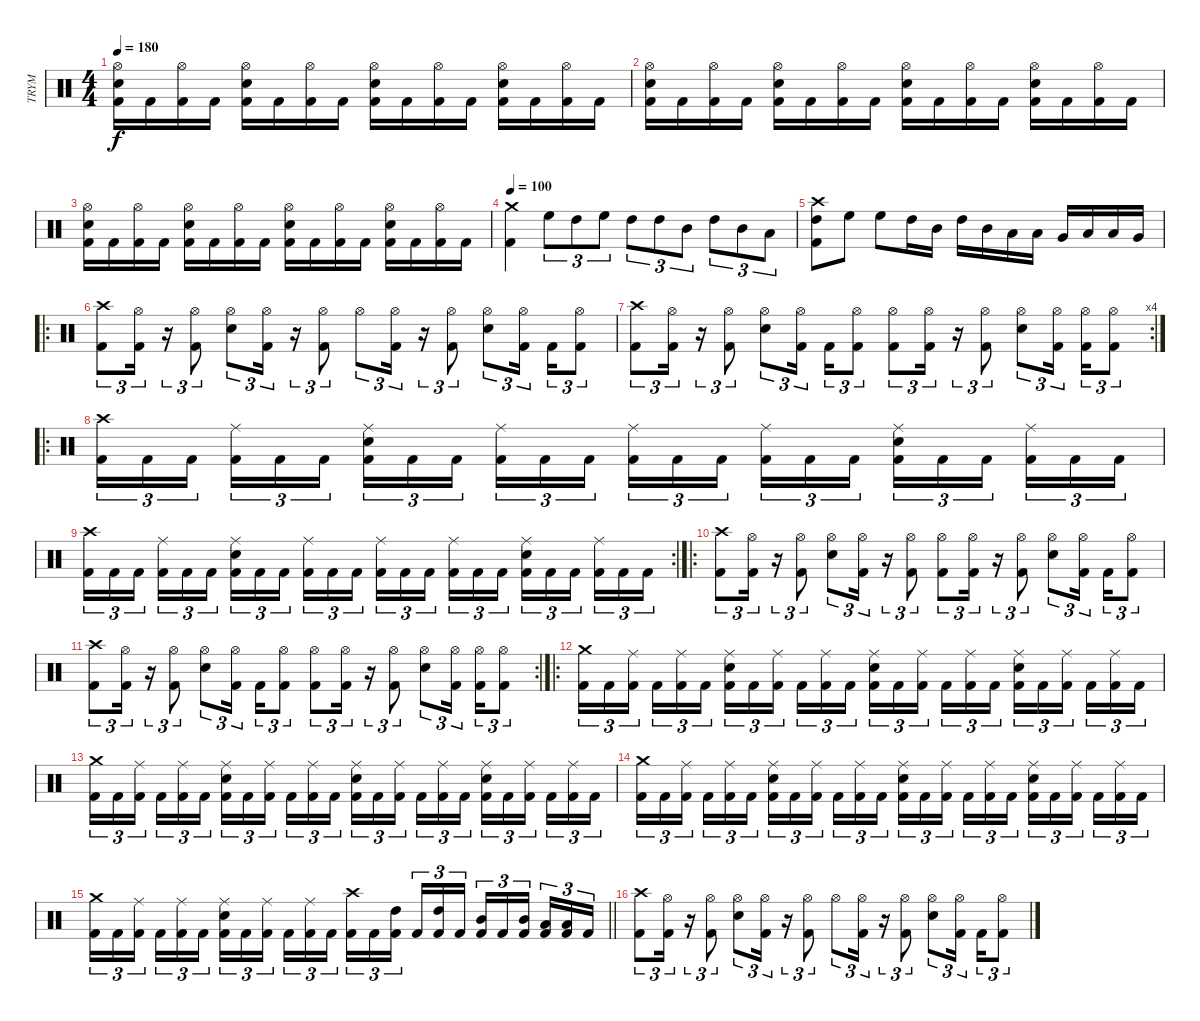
\track ("TRYM" "TRYM") {instrument percussion}
\staff {score}
\articulation defaults
\ts (4 4)
\tempo 180
\clef neutral
\ks c
("Kick (hit) 2" "Hi-Hat (open)" "Electric Snare (hit)").16{dy f} "Kick (hit) 2".16 ("Kick (hit) 2" "Hi-Hat (open)").16 "Kick (hit) 2".16 ("Kick (hit) 2" "Hi-Hat (open)" "Electric Snare (hit)").16 "Kick (hit) 2".16 ("Kick (hit) 2" "Hi-Hat (open)").16 "Kick (hit) 2".16 ("Kick (hit) 2" "Hi-Hat (open)" "Electric Snare (hit)").16 "Kick (hit) 2".16 ("Kick (hit) 2" "Hi-Hat (open)").16 "Kick (hit) 2".16 ("Kick (hit) 2" "Hi-Hat (open)" "Electric Snare (hit)").16 "Kick (hit) 2".16 ("Kick (hit) 2" "Hi-Hat (open)").16 "Kick (hit) 2".16 |
("Kick (hit) 2" "Hi-Hat (open)" "Electric Snare (hit)").16 "Kick (hit) 2".16 ("Kick (hit) 2" "Hi-Hat (open)").16 "Kick (hit) 2".16 ("Kick (hit) 2" "Hi-Hat (open)" "Electric Snare (hit)").16 "Kick (hit) 2".16 ("Kick (hit) 2" "Hi-Hat (open)").16 "Kick (hit) 2".16 ("Kick (hit) 2" "Hi-Hat (open)" "Electric Snare (hit)").16 "Kick (hit) 2".16 ("Kick (hit) 2" "Hi-Hat (open)").16 "Kick (hit) 2".16 ("Kick (hit) 2" "Hi-Hat (open)" "Electric Snare (hit)").16 "Kick (hit) 2".16 ("Kick (hit) 2" "Hi-Hat (open)").16 "Kick (hit) 2".16 |
("Kick (hit) 2" "Hi-Hat (open)" "Electric Snare (hit)").16 "Kick (hit) 2".16 ("Kick (hit) 2" "Hi-Hat (open)").16 "Kick (hit) 2".16 ("Kick (hit) 2" "Hi-Hat (open)" "Electric Snare (hit)").16 "Kick (hit) 2".16 ("Kick (hit) 2" "Hi-Hat (open)").16 "Kick (hit) 2".16 ("Kick (hit) 2" "Hi-Hat (open)" "Electric Snare (hit)").16 "Kick (hit) 2".16 ("Kick (hit) 2" "Hi-Hat (open)").16 "Kick (hit) 2".16 ("Kick (hit) 2" "Hi-Hat (open)" "Electric Snare (hit)").16 "Kick (hit) 2".16 ("Kick (hit) 2" "Hi-Hat (open)").16 "Kick (hit) 2".16 |
\tempo 100
("Kick (hit) 2" "Crash medium (hit)").4 "High Floor Tom (hit)".8{tu (3 2)} "High Tom (hit)".8{tu (3 2)} "High Floor Tom (hit)".8{tu (3 2)} "High Tom (hit)".8{tu (3 2)} "High Tom (hit)".8{tu (3 2)} "Mid Tom (hit)".8{tu (3 2)} "High Tom (hit)".8{tu (3 2)} "Mid Tom (hit)".8{tu (3 2)} "Low Tom (hit)".8{tu (3 2)} |
("Kick (hit) 2" "High Tom (hit)" "Crash high (hit)").8 "High Floor Tom (hit)".8 "High Floor Tom (hit)".8 "High Tom (hit)".16 "Mid Tom (hit)".16 "High Tom (hit)".16 "Mid Tom (hit)".16 "Low Tom (hit)".16 "Low Tom (hit)".16 "Very Low Tom (hit)".16 "Low Tom (hit)".16 "Low Tom (hit)".16 "Very Low Tom (hit)".16 |
\ro
("Kick (hit) 2" "Crash high (hit)").8{tu (3 2)} ("Kick (hit) 2" "Hi-Hat (open)").16{tu (3 2)} r.16{tu (3 2)} ("Kick (hit) 2" "Hi-Hat (open)").8{tu (3 2)} ("Hi-Hat (open)" "Electric Snare (hit)").8{tu (3 2)} ("Kick (hit) 2" "Hi-Hat (open)").16{tu (3 2)} r.16{tu (3 2)} ("Kick (hit) 2" "Hi-Hat (open)").8{tu (3 2)} "Hi-Hat (open)".8{tu (3 2)} ("Kick (hit) 2" "Hi-Hat (open)").16{tu (3 2)} r.16{tu (3 2)} ("Kick (hit) 2" "Hi-Hat (open)").8{tu (3 2)} ("Hi-Hat (open)" "Electric Snare (hit)").8{tu (3 2)} ("Kick (hit) 2" "Hi-Hat (open)").16{tu (3 2) beam splitsecondary} "Kick (hit) 2".16{tu (3 2)} ("Kick (hit) 2" "Hi-Hat (open)").8{tu (3 2)} |
\rc 4
("Kick (hit) 2" "Crash high (hit)").8{tu (3 2)} ("Kick (hit) 2" "Hi-Hat (open)").16{tu (3 2)} r.16{tu (3 2)} ("Kick (hit) 2" "Hi-Hat (open)").8{tu (3 2)} ("Hi-Hat (open)" "Electric Snare (hit)").8{tu (3 2)} ("Kick (hit) 2" "Hi-Hat (open)").16{tu (3 2) beam splitsecondary} "Kick (hit) 2".16{tu (3 2)} ("Kick (hit) 2" "Hi-Hat (open)").8{tu (3 2)} ("Kick (hit) 2" "Hi-Hat (open)").8{tu (3 2)} ("Kick (hit) 2" "Hi-Hat (open)").16{tu (3 2)} r.16{tu (3 2)} ("Kick (hit) 2" "Hi-Hat (open)").8{tu (3 2)} ("Hi-Hat (open)" "Electric Snare (hit)").8{tu (3 2)} ("Kick (hit) 2" "Hi-Hat (open)").16{tu (3 2) beam splitsecondary} ("Kick (hit) 2" "Hi-Hat (open)").16{tu (3 2)} ("Kick (hit) 2" "Hi-Hat (open)").8{tu (3 2)} |
\ro
("Kick (hit) 2" "Crash high (hit)").16{tu (3 2)} "Kick (hit) 2".16{tu (3 2)} "Kick (hit) 2".16{tu (3 2) beam splitsecondary} ("Kick (hit) 2" "Ride (middle)").16{tu (3 2)} "Kick (hit) 2".16{tu (3 2)} "Kick (hit) 2".16{tu (3 2)} ("Kick (hit) 2" "Ride (middle)" "Electric Snare (hit)").16{tu (3 2)} "Kick (hit) 2".16{tu (3 2)} "Kick (hit) 2".16{tu (3 2) beam splitsecondary} ("Kick (hit) 2" "Ride (middle)").16{tu (3 2)} "Kick (hit) 2".16{tu (3 2)} "Kick (hit) 2".16{tu (3 2)} ("Kick (hit) 2" "Ride (middle)").16{tu (3 2)} "Kick (hit) 2".16{tu (3 2)} "Kick (hit) 2".16{tu (3 2) beam splitsecondary} ("Kick (hit) 2" "Ride (middle)").16{tu (3 2)} "Kick (hit) 2".16{tu (3 2)} "Kick (hit) 2".16{tu (3 2)} ("Kick (hit) 2" "Ride (middle)" "Electric Snare (hit)").16{tu (3 2)} "Kick (hit) 2".16{tu (3 2)} "Kick (hit) 2".16{tu (3 2) beam splitsecondary} ("Kick (hit) 2" "Ride (middle)").16{tu (3 2)} "Kick (hit) 2".16{tu (3 2)} "Kick (hit) 2".16{tu (3 2)} |
\rc 2
("Kick (hit) 2" "Crash high (hit)").16{tu (3 2)} "Kick (hit) 2".16{tu (3 2)} "Kick (hit) 2".16{tu (3 2) beam splitsecondary} ("Kick (hit) 2" "Ride (middle)").16{tu (3 2)} "Kick (hit) 2".16{tu (3 2)} "Kick (hit) 2".16{tu (3 2)} ("Kick (hit) 2" "Ride (middle)" "Electric Snare (hit)").16{tu (3 2)} "Kick (hit) 2".16{tu (3 2)} "Kick (hit) 2".16{tu (3 2) beam splitsecondary} ("Kick (hit) 2" "Ride (middle)").16{tu (3 2)} "Kick (hit) 2".16{tu (3 2)} "Kick (hit) 2".16{tu (3 2)} ("Kick (hit) 2" "Ride (middle)").16{tu (3 2)} "Kick (hit) 2".16{tu (3 2)} "Kick (hit) 2".16{tu (3 2) beam splitsecondary} ("Kick (hit) 2" "Ride (middle)").16{tu (3 2)} "Kick (hit) 2".16{tu (3 2)} "Kick (hit) 2".16{tu (3 2)} ("Kick (hit) 2" "Ride (middle)" "Electric Snare (hit)").16{tu (3 2)} "Kick (hit) 2".16{tu (3 2)} "Kick (hit) 2".16{tu (3 2) beam splitsecondary} ("Kick (hit) 2" "Ride (middle)").16{tu (3 2)} "Kick (hit) 2".16{tu (3 2)} "Kick (hit) 2".16{tu (3 2)} |
\ro
("Kick (hit) 2" "Crash high (hit)").8{tu (3 2)} ("Kick (hit) 2" "Hi-Hat (open)").16{tu (3 2)} r.16{tu (3 2)} ("Kick (hit) 2" "Hi-Hat (open)").8{tu (3 2)} ("Hi-Hat (open)" "Electric Snare (hit)").8{tu (3 2)} ("Kick (hit) 2" "Hi-Hat (open)").16{tu (3 2)} r.16{tu (3 2)} ("Kick (hit) 2" "Hi-Hat (open)").8{tu (3 2)} ("Kick (hit) 2" "Hi-Hat (open)").8{tu (3 2)} ("Kick (hit) 2" "Hi-Hat (open)").16{tu (3 2)} r.16{tu (3 2)} ("Kick (hit) 2" "Hi-Hat (open)").8{tu (3 2)} ("Hi-Hat (open)" "Electric Snare (hit)").8{tu (3 2)} ("Kick (hit) 2" "Hi-Hat (open)").16{tu (3 2) beam splitsecondary} "Kick (hit) 2".16{tu (3 2)} ("Kick (hit) 2" "Hi-Hat (open)").8{tu (3 2)} |
\rc 2
("Kick (hit) 2" "Crash high (hit)").8{tu (3 2)} ("Kick (hit) 2" "Hi-Hat (open)").16{tu (3 2)} r.16{tu (3 2)} ("Kick (hit) 2" "Hi-Hat (open)").8{tu (3 2)} ("Hi-Hat (open)" "Electric Snare (hit)").8{tu (3 2)} ("Kick (hit) 2" "Hi-Hat (open)").16{tu (3 2) beam splitsecondary} "Kick (hit) 2".16{tu (3 2)} ("Kick (hit) 2" "Hi-Hat (open)").8{tu (3 2)} ("Kick (hit) 2" "Hi-Hat (open)").8{tu (3 2)} ("Kick (hit) 2" "Hi-Hat (open)").16{tu (3 2)} r.16{tu (3 2)} ("Kick (hit) 2" "Hi-Hat (open)").8{tu (3 2)} ("Hi-Hat (open)" "Electric Snare (hit)").8{tu (3 2)} ("Kick (hit) 2" "Hi-Hat (open)").16{tu (3 2) beam splitsecondary} ("Kick (hit) 2" "Hi-Hat (open)").16{tu (3 2)} ("Kick (hit) 2" "Hi-Hat (open)").8{tu (3 2)} |
\ro
("Kick (hit) 2" "Crash medium (hit)").16{tu (3 2)} "Kick (hit) 2".16{tu (3 2)} ("Kick (hit) 2" "Ride (middle)").16{tu (3 2) beam splitsecondary} "Kick (hit) 2".16{tu (3 2)} ("Kick (hit) 2" "Ride (middle)").16{tu (3 2)} "Kick (hit) 2".16{tu (3 2)} ("Kick (hit) 2" "Ride (middle)" "Electric Snare (hit)").16{tu (3 2)} "Kick (hit) 2".16{tu (3 2)} ("Kick (hit) 2" "Ride (middle)").16{tu (3 2) beam splitsecondary} "Kick (hit) 2".16{tu (3 2)} ("Kick (hit) 2" "Ride (middle)").16{tu (3 2)} "Kick (hit) 2".16{tu (3 2)} ("Kick (hit) 2" "Ride (middle)" "Electric Snare (hit)").16{tu (3 2)} "Kick (hit) 2".16{tu (3 2)} ("Kick (hit) 2" "Ride (middle)").16{tu (3 2) beam splitsecondary} "Kick (hit) 2".16{tu (3 2)} ("Kick (hit) 2" "Ride (middle)").16{tu (3 2)} "Kick (hit) 2".16{tu (3 2)} ("Kick (hit) 2" "Ride (middle)" "Electric Snare (hit)").16{tu (3 2)} "Kick (hit) 2".16{tu (3 2)} ("Kick (hit) 2" "Ride (middle)").16{tu (3 2) beam splitsecondary} "Kick (hit) 2".16{tu (3 2)} ("Kick (hit) 2" "Ride (middle)").16{tu (3 2)} "Kick (hit) 2".16{tu (3 2)} |
("Kick (hit) 2" "Crash medium (hit)").16{tu (3 2)} "Kick (hit) 2".16{tu (3 2)} ("Kick (hit) 2" "Ride (middle)").16{tu (3 2) beam splitsecondary} "Kick (hit) 2".16{tu (3 2)} ("Kick (hit) 2" "Ride (middle)").16{tu (3 2)} "Kick (hit) 2".16{tu (3 2)} ("Kick (hit) 2" "Ride (middle)" "Electric Snare (hit)").16{tu (3 2)} "Kick (hit) 2".16{tu (3 2)} ("Kick (hit) 2" "Ride (middle)").16{tu (3 2) beam splitsecondary} "Kick (hit) 2".16{tu (3 2)} ("Kick (hit) 2" "Ride (middle)").16{tu (3 2)} "Kick (hit) 2".16{tu (3 2)} ("Kick (hit) 2" "Ride (middle)" "Electric Snare (hit)").16{tu (3 2)} "Kick (hit) 2".16{tu (3 2)} ("Kick (hit) 2" "Ride (middle)").16{tu (3 2) beam splitsecondary} "Kick (hit) 2".16{tu (3 2)} ("Kick (hit) 2" "Ride (middle)").16{tu (3 2)} "Kick (hit) 2".16{tu (3 2)} ("Kick (hit) 2" "Ride (middle)" "Electric Snare (hit)").16{tu (3 2)} "Kick (hit) 2".16{tu (3 2)} ("Kick (hit) 2" "Ride (middle)").16{tu (3 2) beam splitsecondary} "Kick (hit) 2".16{tu (3 2)} ("Kick (hit) 2" "Ride (middle)").16{tu (3 2)} "Kick (hit) 2".16{tu (3 2)} |
("Kick (hit) 2" "Crash medium (hit)").16{tu (3 2)} "Kick (hit) 2".16{tu (3 2)} ("Kick (hit) 2" "Ride (middle)").16{tu (3 2) beam splitsecondary} "Kick (hit) 2".16{tu (3 2)} ("Kick (hit) 2" "Ride (middle)").16{tu (3 2)} "Kick (hit) 2".16{tu (3 2)} ("Kick (hit) 2" "Ride (middle)" "Electric Snare (hit)").16{tu (3 2)} "Kick (hit) 2".16{tu (3 2)} ("Kick (hit) 2" "Ride (middle)").16{tu (3 2) beam splitsecondary} "Kick (hit) 2".16{tu (3 2)} ("Kick (hit) 2" "Ride (middle)").16{tu (3 2)} "Kick (hit) 2".16{tu (3 2)} ("Kick (hit) 2" "Ride (middle)" "Electric Snare (hit)").16{tu (3 2)} "Kick (hit) 2".16{tu (3 2)} ("Kick (hit) 2" "Ride (middle)").16{tu (3 2) beam splitsecondary} "Kick (hit) 2".16{tu (3 2)} ("Kick (hit) 2" "Ride (middle)").16{tu (3 2)} "Kick (hit) 2".16{tu (3 2)} ("Kick (hit) 2" "Ride (middle)" "Electric Snare (hit)").16{tu (3 2)} "Kick (hit) 2".16{tu (3 2)} ("Kick (hit) 2" "Ride (middle)").16{tu (3 2) beam splitsecondary} "Kick (hit) 2".16{tu (3 2)} ("Kick (hit) 2" "Ride (middle)").16{tu (3 2)} "Kick (hit) 2".16{tu (3 2)} |
\barLineRight lightlight
("Kick (hit) 2" "Crash medium (hit)").16{tu (3 2)} "Kick (hit) 2".16{tu (3 2)} ("Kick (hit) 2" "Ride (middle)").16{tu (3 2) beam splitsecondary} "Kick (hit) 2".16{tu (3 2)} ("Kick (hit) 2" "Ride (middle)").16{tu (3 2)} "Kick (hit) 2".16{tu (3 2)} ("Kick (hit) 2" "Ride (middle)" "Electric Snare (hit)").16{tu (3 2)} "Kick (hit) 2".16{tu (3 2)} ("Kick (hit) 2" "Ride (middle)").16{tu (3 2) beam splitsecondary} "Kick (hit) 2".16{tu (3 2)} ("Kick (hit) 2" "Ride (middle)").16{tu (3 2)} "Kick (hit) 2".16{tu (3 2)} ("Kick (hit) 2" "Crash high (hit)").16{tu (3 2)} "Kick (hit) 2".16{tu (3 2)} ("Kick (hit) 2" "High Tom (hit)").16{tu (3 2) beam splitsecondary} "Kick (hit) 2".16{tu (3 2)} ("Kick (hit) 2" "High Tom (hit)").16{tu (3 2)} "Kick (hit) 2".16{tu (3 2)} ("Kick (hit) 2" "Mid Tom (hit)").16{tu (3 2)} "Kick (hit) 2".16{tu (3 2)} ("Kick (hit) 2" "Mid Tom (hit)").16{tu (3 2) beam splitsecondary} ("Kick (hit) 2" "Low Tom (hit)").16{tu (3 2)} ("Kick (hit) 2" "Low Tom (hit)").16{tu (3 2)} "Kick (hit) 2".16{tu (3 2)} |
("Kick (hit) 2" "Crash high (hit)").8{tu (3 2)} ("Kick (hit) 2" "Hi-Hat (open)").16{tu (3 2)} r.16{tu (3 2)} ("Kick (hit) 2" "Hi-Hat (open)").8{tu (3 2)} ("Hi-Hat (open)" "Electric Snare (hit)").8{tu (3 2)} ("Kick (hit) 2" "Hi-Hat (open)").16{tu (3 2)} r.16{tu (3 2)} ("Kick (hit) 2" "Hi-Hat (open)").8{tu (3 2)} "Hi-Hat (open)".8{tu (3 2)} ("Kick (hit) 2" "Hi-Hat (open)").16{tu (3 2)} r.16{tu (3 2)} ("Kick (hit) 2" "Hi-Hat (open)").8{tu (3 2)} ("Hi-Hat (open)" "Electric Snare (hit)").8{tu (3 2)} ("Kick (hit) 2" "Hi-Hat (open)").16{tu (3 2) beam splitsecondary} "Kick (hit) 2".16{tu (3 2)} ("Kick (hit) 2" "Hi-Hat (open)").8{tu (3 2)}
